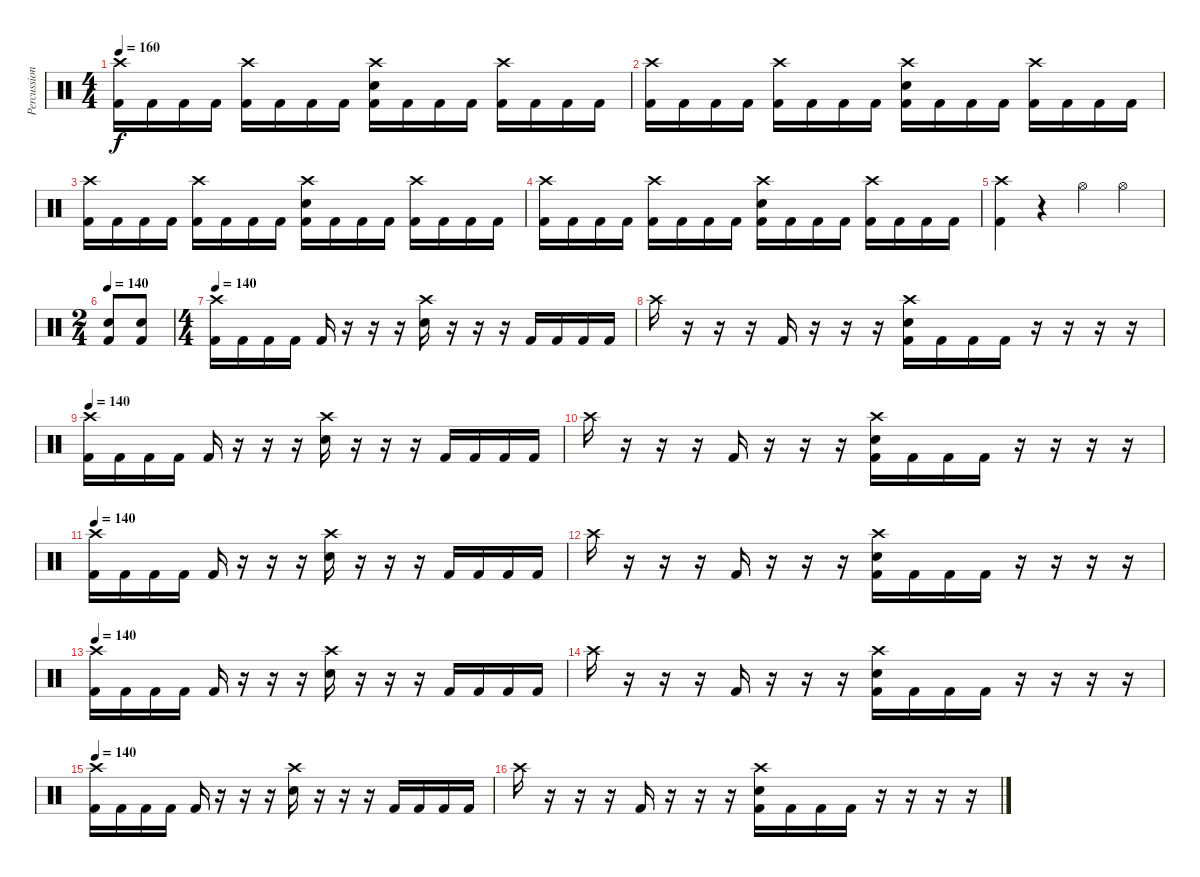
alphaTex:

\track ("Percussion" "Percussion") {instrument percussion}
\staff {score}
\articulation defaults
\ts (4 4)
\tempo 160
\clef neutral
\ks c
("Crash high (hit)" "Kick (hit) 2").16{dy f} "Kick (hit) 2".16 "Kick (hit) 2".16 "Kick (hit) 2".16 ("Crash high (hit)" "Kick (hit) 2").16 "Kick (hit) 2".16 "Kick (hit) 2".16 "Kick (hit) 2".16 ("Crash high (hit)" "Snare (hit) 2" "Kick (hit) 2").16 "Kick (hit) 2".16 "Kick (hit) 2".16 "Kick (hit) 2".16 ("Crash high (hit)" "Kick (hit) 2").16 "Kick (hit) 2".16 "Kick (hit) 2".16 "Kick (hit) 2".16 |
("Crash high (hit)" "Kick (hit) 2").16 "Kick (hit) 2".16 "Kick (hit) 2".16 "Kick (hit) 2".16 ("Crash high (hit)" "Kick (hit) 2").16 "Kick (hit) 2".16 "Kick (hit) 2".16 "Kick (hit) 2".16 ("Crash high (hit)" "Snare (hit) 2" "Kick (hit) 2").16 "Kick (hit) 2".16 "Kick (hit) 2".16 "Kick (hit) 2".16 ("Crash high (hit)" "Kick (hit) 2").16 "Kick (hit) 2".16 "Kick (hit) 2".16 "Kick (hit) 2".16 |
("Crash high (hit)" "Kick (hit) 2").16 "Kick (hit) 2".16 "Kick (hit) 2".16 "Kick (hit) 2".16 ("Crash high (hit)" "Kick (hit) 2").16 "Kick (hit) 2".16 "Kick (hit) 2".16 "Kick (hit) 2".16 ("Crash high (hit)" "Snare (hit) 2" "Kick (hit) 2").16 "Kick (hit) 2".16 "Kick (hit) 2".16 "Kick (hit) 2".16 ("Crash high (hit)" "Kick (hit) 2").16 "Kick (hit) 2".16 "Kick (hit) 2".16 "Kick (hit) 2".16 |
("Crash high (hit)" "Kick (hit) 2").16 "Kick (hit) 2".16 "Kick (hit) 2".16 "Kick (hit) 2".16 ("Crash high (hit)" "Kick (hit) 2").16 "Kick (hit) 2".16 "Kick (hit) 2".16 "Kick (hit) 2".16 ("Crash high (hit)" "Snare (hit) 2" "Kick (hit) 2").16 "Kick (hit) 2".16 "Kick (hit) 2".16 "Kick (hit) 2".16 ("Crash high (hit)" "Kick (hit) 2").16 "Kick (hit) 2".16 "Kick (hit) 2".16 "Kick (hit) 2".16 |
("Crash high (hit)" "Kick (hit) 2").4 r.4 "Hi-Hat (open)".4 "Hi-Hat (open)".4 |
\ts (2 4)
\tempo 140
("Snare (hit) 2" "Kick (hit) 2").8 ("Snare (hit) 2" "Kick (hit) 2").8 |
\ts (4 4)
\tempo 140
("Crash high (hit)" "Kick (hit) 2").16 "Kick (hit) 2".16 "Kick (hit) 2".16 "Kick (hit) 2".16 "Kick (hit) 2".16 r.16 r.16 r.16 ("Crash high (hit)" "Snare (hit) 2").16 r.16 r.16 r.16 "Kick (hit) 2".16 "Kick (hit) 2".16 "Kick (hit) 2".16 "Kick (hit) 2".16 |
"Crash high (hit)".16 r.16 r.16 r.16 "Kick (hit) 2".16 r.16 r.16 r.16 ("Crash high (hit)" "Snare (hit) 2" "Kick (hit) 2").16 "Kick (hit) 2".16 "Kick (hit) 2".16 "Kick (hit) 2".16 r.16 r.16 r.16 r.16 |
\tempo 140
("Crash high (hit)" "Kick (hit) 2").16 "Kick (hit) 2".16 "Kick (hit) 2".16 "Kick (hit) 2".16 "Kick (hit) 2".16 r.16 r.16 r.16 ("Crash high (hit)" "Snare (hit) 2").16 r.16 r.16 r.16 "Kick (hit) 2".16 "Kick (hit) 2".16 "Kick (hit) 2".16 "Kick (hit) 2".16 |
"Crash high (hit)".16 r.16 r.16 r.16 "Kick (hit) 2".16 r.16 r.16 r.16 ("Crash high (hit)" "Snare (hit) 2" "Kick (hit) 2").16 "Kick (hit) 2".16 "Kick (hit) 2".16 "Kick (hit) 2".16 r.16 r.16 r.16 r.16 |
\tempo 140
("Crash high (hit)" "Kick (hit) 2").16 "Kick (hit) 2".16 "Kick (hit) 2".16 "Kick (hit) 2".16 "Kick (hit) 2".16 r.16 r.16 r.16 ("Crash high (hit)" "Snare (hit) 2").16 r.16 r.16 r.16 "Kick (hit) 2".16 "Kick (hit) 2".16 "Kick (hit) 2".16 "Kick (hit) 2".16 |
"Crash high (hit)".16 r.16 r.16 r.16 "Kick (hit) 2".16 r.16 r.16 r.16 ("Crash high (hit)" "Snare (hit) 2" "Kick (hit) 2").16 "Kick (hit) 2".16 "Kick (hit) 2".16 "Kick (hit) 2".16 r.16 r.16 r.16 r.16 |
\tempo 140
("Crash high (hit)" "Kick (hit) 2").16 "Kick (hit) 2".16 "Kick (hit) 2".16 "Kick (hit) 2".16 "Kick (hit) 2".16 r.16 r.16 r.16 ("Crash high (hit)" "Snare (hit) 2").16 r.16 r.16 r.16 "Kick (hit) 2".16 "Kick (hit) 2".16 "Kick (hit) 2".16 "Kick (hit) 2".16 |
"Crash high (hit)".16 r.16 r.16 r.16 "Kick (hit) 2".16 r.16 r.16 r.16 ("Crash high (hit)" "Snare (hit) 2" "Kick (hit) 2").16 "Kick (hit) 2".16 "Kick (hit) 2".16 "Kick (hit) 2".16 r.16 r.16 r.16 r.16 |
\tempo 140
("Crash high (hit)" "Kick (hit) 2").16 "Kick (hit) 2".16 "Kick (hit) 2".16 "Kick (hit) 2".16 "Kick (hit) 2".16 r.16 r.16 r.16 ("Crash high (hit)" "Snare (hit) 2").16 r.16 r.16 r.16 "Kick (hit) 2".16 "Kick (hit) 2".16 "Kick (hit) 2".16 "Kick (hit) 2".16 |
"Crash high (hit)".16 r.16 r.16 r.16 "Kick (hit) 2".16 r.16 r.16 r.16 ("Crash high (hit)" "Snare (hit) 2" "Kick (hit) 2").16 "Kick (hit) 2".16 "Kick (hit) 2".16 "Kick (hit) 2".16 r.16 r.16 r.16 r.16
